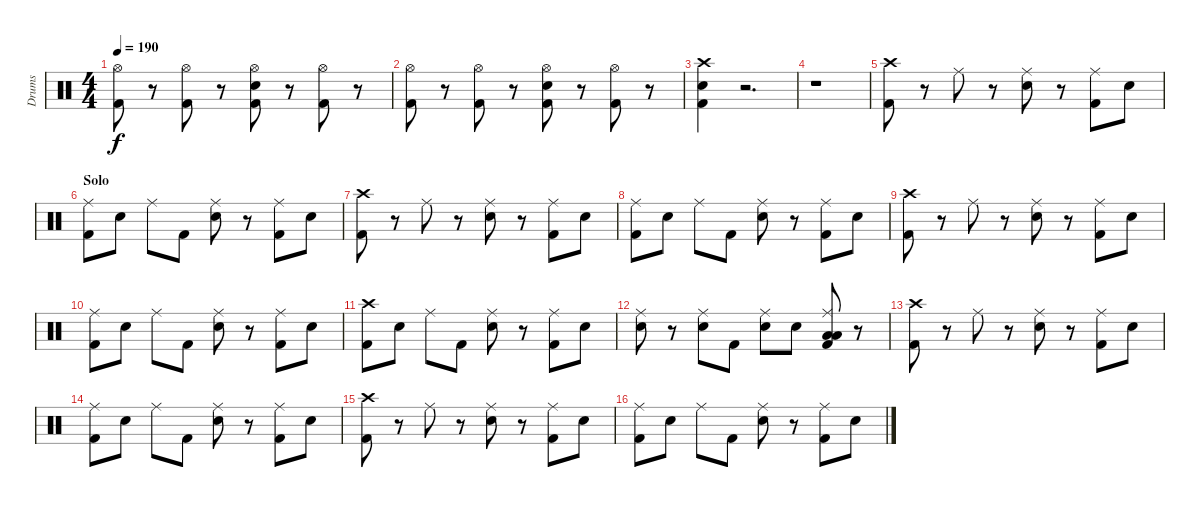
\track ("Drums" "Drums") {instrument percussion}
\staff {score}
\articulation defaults
\ts (4 4)
\tempo 190
\clef neutral
\ks c
("Hi-Hat (open)" "Kick (hit) 2").8{dy f} r.8 ("Hi-Hat (open)" "Kick (hit) 2").8 r.8 ("Hi-Hat (open)" "Electric Snare (hit)" "Kick (hit) 2").8 r.8 ("Hi-Hat (open)" "Kick (hit) 2").8 r.8 |
("Hi-Hat (open)" "Kick (hit) 2").8 r.8 ("Hi-Hat (open)" "Kick (hit) 2").8 r.8 ("Hi-Hat (open)" "Electric Snare (hit)" "Kick (hit) 2").8 r.8 ("Hi-Hat (open)" "Kick (hit) 2").8 r.8 |
("Crash high (hit)" "Electric Snare (hit)" "Kick (hit) 2").4 r.2{d} |
r.1 |
("Crash high (hit)" "Kick (hit) 2").8 r.8 "Ride (middle)".8 r.8 ("Ride (middle)" "Electric Snare (hit)").8 r.8 ("Ride (middle)" "Kick (hit) 2").8 "Electric Snare (hit)".8 |
\section ("" "Solo")
("Ride (middle)" "Kick (hit) 2").8 "Electric Snare (hit)".8 "Ride (middle)".8 "Kick (hit) 2".8 ("Ride (middle)" "Electric Snare (hit)").8 r.8 ("Ride (middle)" "Kick (hit) 2").8 "Electric Snare (hit)".8 |
("Crash high (hit)" "Kick (hit) 2").8 r.8 "Ride (middle)".8 r.8 ("Ride (middle)" "Electric Snare (hit)").8 r.8 ("Ride (middle)" "Kick (hit) 2").8 "Electric Snare (hit)".8 |
("Ride (middle)" "Kick (hit) 2").8 "Electric Snare (hit)".8 "Ride (middle)".8 "Kick (hit) 2".8 ("Ride (middle)" "Electric Snare (hit)").8 r.8 ("Ride (middle)" "Kick (hit) 2").8 "Electric Snare (hit)".8 |
("Crash high (hit)" "Kick (hit) 2").8 r.8 "Ride (middle)".8 r.8 ("Ride (middle)" "Electric Snare (hit)").8 r.8 ("Ride (middle)" "Kick (hit) 2").8 "Electric Snare (hit)".8 |
("Ride (middle)" "Kick (hit) 2").8 "Electric Snare (hit)".8 "Ride (middle)".8 "Kick (hit) 2".8 ("Ride (middle)" "Electric Snare (hit)").8 r.8 ("Ride (middle)" "Kick (hit) 2").8 "Electric Snare (hit)".8 |
("Crash high (hit)" "Kick (hit) 2").8 "Electric Snare (hit)".8 "Ride (middle)".8 "Kick (hit) 2".8 ("Ride (middle)" "Electric Snare (hit)").8 r.8 ("Ride (middle)" "Kick (hit) 2").8 "Electric Snare (hit)".8 |
("Ride (middle)" "Electric Snare (hit)").8 r.8 ("Ride (middle)" "Electric Snare (hit)").8 "Kick (hit) 2".8 ("Ride (middle)" "Electric Snare (hit)").8 "Electric Snare (hit)".8 ("Ride (middle)" "Low Floor Tom (hit)" "Low Floor Tom (hit)" "Kick (hit) 2").8 r.8 |
("Crash high (hit)" "Kick (hit) 2").8 r.8 "Ride (middle)".8 r.8 ("Ride (middle)" "Electric Snare (hit)").8 r.8 ("Ride (middle)" "Kick (hit) 2").8 "Electric Snare (hit)".8 |
("Ride (middle)" "Kick (hit) 2").8 "Electric Snare (hit)".8 "Ride (middle)".8 "Kick (hit) 2".8 ("Ride (middle)" "Electric Snare (hit)").8 r.8 ("Ride (middle)" "Kick (hit) 2").8 "Electric Snare (hit)".8 |
("Crash high (hit)" "Kick (hit) 2").8 r.8 "Ride (middle)".8 r.8 ("Ride (middle)" "Electric Snare (hit)").8 r.8 ("Ride (middle)" "Kick (hit) 2").8 "Electric Snare (hit)".8 |
("Ride (middle)" "Kick (hit) 2").8 "Electric Snare (hit)".8 "Ride (middle)".8 "Kick (hit) 2".8 ("Ride (middle)" "Electric Snare (hit)").8 r.8 ("Ride (middle)" "Kick (hit) 2").8 "Electric Snare (hit)".8
